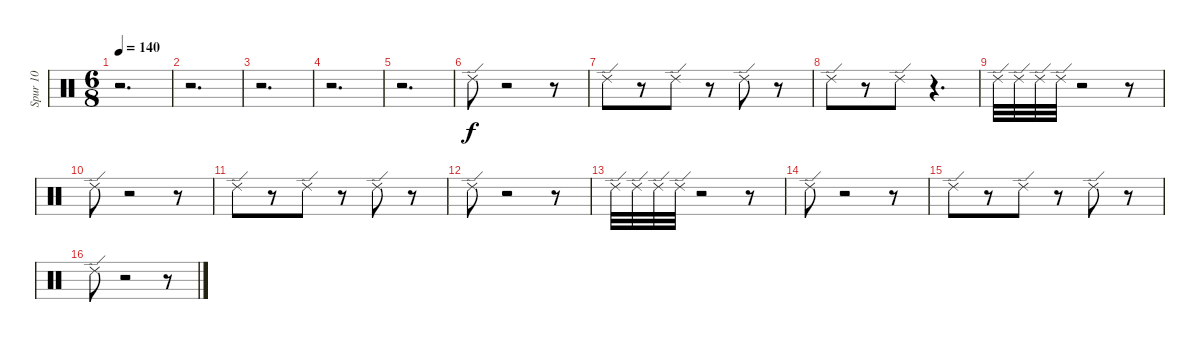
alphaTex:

\track ("Spur 10" "Spur 10") {instrument percussion}
\staff {score}
\articulation defaults
\ts (6 8)
\tempo 140
\clef neutral
\ks c
r.2{d dy f} |
r.2{d} |
r.2{d} |
r.2{d} |
r.2{d} |
"Ride (edge) 2".8 r.2 r.8 |
"Ride (edge) 2".8 r.8 "Ride (edge) 2".8 r.8 "Ride (edge) 2".8 r.8 |
"Ride (edge) 2".8 r.8 "Ride (edge) 2".8 r.4{d} |
"Ride (edge) 2".32 "Ride (edge) 2".32 "Ride (edge) 2".32 "Ride (edge) 2".32 r.2 r.8 |
"Ride (edge) 2".8 r.2 r.8 |
"Ride (edge) 2".8 r.8 "Ride (edge) 2".8 r.8 "Ride (edge) 2".8 r.8 |
"Ride (edge) 2".8 r.2 r.8 |
"Ride (edge) 2".32 "Ride (edge) 2".32 "Ride (edge) 2".32 "Ride (edge) 2".32 r.2 r.8 |
"Ride (edge) 2".8 r.2 r.8 |
"Ride (edge) 2".8 r.8 "Ride (edge) 2".8 r.8 "Ride (edge) 2".8 r.8 |
"Ride (edge) 2".8 r.2 r.8
